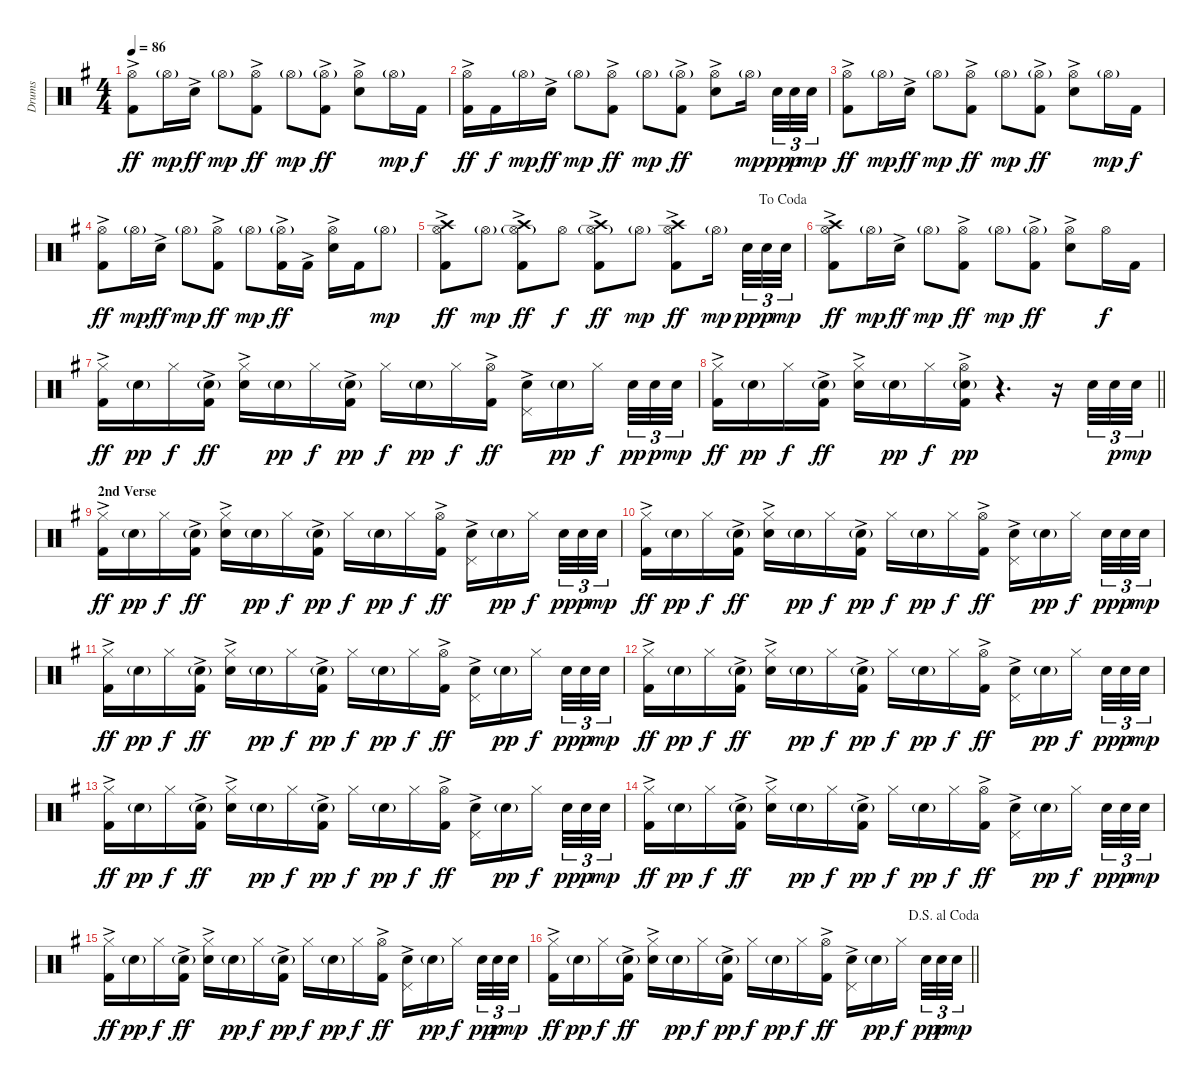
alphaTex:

\track ("Drums" "Drums") {instrument percussion}
\staff {score}
\articulation defaults
\ts (4 4)
\tempo 86
\clef neutral
\ks g
("Hi-Hat (open)" "Kick (hit) 2"{ac}).8{dy ff} "Hi-Hat (open)"{g}.16{dy mp} "Snare (hit) 2"{ac}.16{dy ff} "Hi-Hat (open)"{g}.8{dy mp} ("Hi-Hat (open)" "Kick (hit) 2"{ac}).8{dy ff} "Hi-Hat (open)"{g}.8{dy mp} ("Hi-Hat (open)"{g} "Kick (hit) 2"{ac}).8{dy ff} ("Hi-Hat (open)" "Snare (hit) 2"{ac}).8 "Hi-Hat (open)"{g}.16{dy mp} "Kick (hit) 2".16{dy f} |
("Hi-Hat (open)" "Kick (hit) 2"{ac}).16{dy ff} "Kick (hit) 2".16{dy f} "Hi-Hat (open)"{g}.16{dy mp} "Snare (hit) 2"{ac}.16{dy ff} "Hi-Hat (open)"{g}.8{dy mp} ("Hi-Hat (open)" "Kick (hit) 2"{ac}).8{dy ff} "Hi-Hat (open)"{g}.8{dy mp} ("Hi-Hat (open)"{g} "Kick (hit) 2"{ac}).8{dy ff} ("Hi-Hat (open)" "Snare (hit) 2"{ac}).8 "Hi-Hat (open)"{g}.16{dy mp beam splitsecondary} "Snare (hit) 2".32{tu (3 2) dy pp} "Snare (hit) 2".32{tu (3 2) dy p} "Snare (hit) 2".32{tu (3 2) dy mp} |
("Hi-Hat (open)" "Kick (hit) 2"{ac}).8{dy ff} "Hi-Hat (open)"{g}.16{dy mp} "Snare (hit) 2"{ac}.16{dy ff} "Hi-Hat (open)"{g}.8{dy mp} ("Hi-Hat (open)" "Kick (hit) 2"{ac}).8{dy ff} "Hi-Hat (open)"{g}.8{dy mp} ("Hi-Hat (open)"{g} "Kick (hit) 2"{ac}).8{dy ff} ("Hi-Hat (open)" "Snare (hit) 2"{ac}).8 "Hi-Hat (open)"{g}.16{dy mp} "Kick (hit) 2".16{dy f} |
("Hi-Hat (open)" "Kick (hit) 2"{ac}).8{dy ff} "Hi-Hat (open)"{g}.16{dy mp} "Snare (hit) 2"{ac}.16{dy ff} "Hi-Hat (open)"{g}.8{dy mp} ("Hi-Hat (open)" "Kick (hit) 2"{ac}).8{dy ff} "Hi-Hat (open)"{g}.8{dy mp} ("Hi-Hat (open)"{g} "Kick (hit) 2"{ac}).16{dy ff} "Kick (hit) 2"{ac}.16 ("Hi-Hat (open)" "Snare (hit) 2"{ac}).16 "Kick (hit) 2".16 "Hi-Hat (open)"{g}.8{dy mp} |
\jump dacoda
("Hi-Hat (open)" "Crash high (hit)" "Kick (hit) 2"{ac}).8{dy ff} "Hi-Hat (open)"{g}.8{dy mp} ("Hi-Hat (open)"{g} "Crash high (hit)" "Kick (hit) 2"{ac}).8{dy ff} "Hi-Hat (open)".8{dy f} ("Hi-Hat (open)"{g} "Crash high (hit)" "Kick (hit) 2"{ac}).8{dy ff} "Hi-Hat (open)"{g}.8{dy mp} ("Hi-Hat (open)" "Crash high (hit)" "Kick (hit) 2"{ac}).8{dy ff} "Hi-Hat (open)"{g}.16{dy mp beam splitsecondary} "Snare (hit) 2".32{tu (3 2) dy pp} "Snare (hit) 2".32{tu (3 2) dy p} "Snare (hit) 2".32{tu (3 2) dy mp} |
("Hi-Hat (open)" "Crash high (hit)" "Kick (hit) 2"{ac}).8{dy ff} "Hi-Hat (open)"{g}.16{dy mp} "Snare (hit) 2"{ac}.16{dy ff} "Hi-Hat (open)"{g}.8{dy mp} ("Hi-Hat (open)" "Kick (hit) 2"{ac}).8{dy ff} "Hi-Hat (open)"{g}.8{dy mp} ("Hi-Hat (open)"{g} "Kick (hit) 2"{ac}).8{dy ff} ("Hi-Hat (open)" "Snare (hit) 2"{ac}).8 "Hi-Hat (open)".16{dy f} "Kick (hit) 2".16 |
("Hi-Hat (closed)" "Kick (hit) 2"{ac}).16{dy ff} "Snare (hit) 2"{g}.16{dy pp} "Hi-Hat (closed)".16{dy f} ("Snare (hit) 2"{g} "Kick (hit) 2"{ac}).16{dy ff} ("Hi-Hat (closed)" "Snare (hit) 2"{ac}).16 "Snare (hit) 2"{g}.16{dy pp} "Hi-Hat (closed)".16{dy f} ("Snare (hit) 2"{g} "Kick (hit) 2"{ac}).16{dy pp} "Hi-Hat (closed)".16{dy f} "Snare (hit) 2"{g}.16{dy pp} "Hi-Hat (closed)".16{dy f} ("Hi-Hat (open)" "Kick (hit) 2"{ac}).16{dy ff} ("Pedal Hi-Hat (hit)" "Snare (hit) 2"{ac}).16 "Snare (hit) 2"{g}.16{dy pp} "Hi-Hat (closed)".16{dy f beam splitsecondary} "Snare (hit) 2".32{tu (3 2) dy pp} "Snare (hit) 2".32{tu (3 2) dy p} "Snare (hit) 2".32{tu (3 2) dy mp} |
\barLineRight lightlight
("Hi-Hat (closed)" "Kick (hit) 2"{ac}).16{dy ff} "Snare (hit) 2"{g}.16{dy pp} "Hi-Hat (closed)".16{dy f} ("Snare (hit) 2"{g} "Kick (hit) 2"{ac}).16{dy ff} ("Hi-Hat (closed)" "Snare (hit) 2"{ac}).16 "Snare (hit) 2"{g}.16{dy pp} "Hi-Hat (closed)".16{dy f} ("Hi-Hat (open)" "Snare (hit) 2"{g} "Kick (hit) 2"{ac}).16{dy pp} r.4{d} r.16 "Snare (hit) 2".32{tu (3 2)} "Snare (hit) 2".32{tu (3 2) dy p} "Snare (hit) 2".32{tu (3 2) dy mp} |
\section ("" "2nd Verse")
("Hi-Hat (closed)" "Kick (hit) 2"{ac}).16{dy ff} "Snare (hit) 2"{g}.16{dy pp} "Hi-Hat (closed)".16{dy f} ("Snare (hit) 2"{g} "Kick (hit) 2"{ac}).16{dy ff} ("Hi-Hat (closed)" "Snare (hit) 2"{ac}).16 "Snare (hit) 2"{g}.16{dy pp} "Hi-Hat (closed)".16{dy f} ("Snare (hit) 2"{g} "Kick (hit) 2"{ac}).16{dy pp} "Hi-Hat (closed)".16{dy f} "Snare (hit) 2"{g}.16{dy pp} "Hi-Hat (closed)".16{dy f} ("Hi-Hat (open)" "Kick (hit) 2"{ac}).16{dy ff} ("Pedal Hi-Hat (hit)" "Snare (hit) 2"{ac}).16 "Snare (hit) 2"{g}.16{dy pp} "Hi-Hat (closed)".16{dy f beam splitsecondary} "Snare (hit) 2".32{tu (3 2) dy pp} "Snare (hit) 2".32{tu (3 2) dy p} "Snare (hit) 2".32{tu (3 2) dy mp} |
("Hi-Hat (closed)" "Kick (hit) 2"{ac}).16{dy ff} "Snare (hit) 2"{g}.16{dy pp} "Hi-Hat (closed)".16{dy f} ("Snare (hit) 2"{g} "Kick (hit) 2"{ac}).16{dy ff} ("Hi-Hat (closed)" "Snare (hit) 2"{ac}).16 "Snare (hit) 2"{g}.16{dy pp} "Hi-Hat (closed)".16{dy f} ("Snare (hit) 2"{g} "Kick (hit) 2"{ac}).16{dy pp} "Hi-Hat (closed)".16{dy f} "Snare (hit) 2"{g}.16{dy pp} "Hi-Hat (closed)".16{dy f} ("Hi-Hat (open)" "Kick (hit) 2"{ac}).16{dy ff} ("Pedal Hi-Hat (hit)" "Snare (hit) 2"{ac}).16 "Snare (hit) 2"{g}.16{dy pp} "Hi-Hat (closed)".16{dy f beam splitsecondary} "Snare (hit) 2".32{tu (3 2) dy pp} "Snare (hit) 2".32{tu (3 2) dy p} "Snare (hit) 2".32{tu (3 2) dy mp} |
("Hi-Hat (closed)" "Kick (hit) 2"{ac}).16{dy ff} "Snare (hit) 2"{g}.16{dy pp} "Hi-Hat (closed)".16{dy f} ("Snare (hit) 2"{g} "Kick (hit) 2"{ac}).16{dy ff} ("Hi-Hat (closed)" "Snare (hit) 2"{ac}).16 "Snare (hit) 2"{g}.16{dy pp} "Hi-Hat (closed)".16{dy f} ("Snare (hit) 2"{g} "Kick (hit) 2"{ac}).16{dy pp} "Hi-Hat (closed)".16{dy f} "Snare (hit) 2"{g}.16{dy pp} "Hi-Hat (closed)".16{dy f} ("Hi-Hat (open)" "Kick (hit) 2"{ac}).16{dy ff} ("Pedal Hi-Hat (hit)" "Snare (hit) 2"{ac}).16 "Snare (hit) 2"{g}.16{dy pp} "Hi-Hat (closed)".16{dy f beam splitsecondary} "Snare (hit) 2".32{tu (3 2) dy pp} "Snare (hit) 2".32{tu (3 2) dy p} "Snare (hit) 2".32{tu (3 2) dy mp} |
("Hi-Hat (closed)" "Kick (hit) 2"{ac}).16{dy ff} "Snare (hit) 2"{g}.16{dy pp} "Hi-Hat (closed)".16{dy f} ("Snare (hit) 2"{g} "Kick (hit) 2"{ac}).16{dy ff} ("Hi-Hat (closed)" "Snare (hit) 2"{ac}).16 "Snare (hit) 2"{g}.16{dy pp} "Hi-Hat (closed)".16{dy f} ("Snare (hit) 2"{g} "Kick (hit) 2"{ac}).16{dy pp} "Hi-Hat (closed)".16{dy f} "Snare (hit) 2"{g}.16{dy pp} "Hi-Hat (closed)".16{dy f} ("Hi-Hat (open)" "Kick (hit) 2"{ac}).16{dy ff} ("Pedal Hi-Hat (hit)" "Snare (hit) 2"{ac}).16 "Snare (hit) 2"{g}.16{dy pp} "Hi-Hat (closed)".16{dy f beam splitsecondary} "Snare (hit) 2".32{tu (3 2) dy pp} "Snare (hit) 2".32{tu (3 2) dy p} "Snare (hit) 2".32{tu (3 2) dy mp} |
("Hi-Hat (closed)" "Kick (hit) 2"{ac}).16{dy ff} "Snare (hit) 2"{g}.16{dy pp} "Hi-Hat (closed)".16{dy f} ("Snare (hit) 2"{g} "Kick (hit) 2"{ac}).16{dy ff} ("Hi-Hat (closed)" "Snare (hit) 2"{ac}).16 "Snare (hit) 2"{g}.16{dy pp} "Hi-Hat (closed)".16{dy f} ("Snare (hit) 2"{g} "Kick (hit) 2"{ac}).16{dy pp} "Hi-Hat (closed)".16{dy f} "Snare (hit) 2"{g}.16{dy pp} "Hi-Hat (closed)".16{dy f} ("Hi-Hat (open)" "Kick (hit) 2"{ac}).16{dy ff} ("Pedal Hi-Hat (hit)" "Snare (hit) 2"{ac}).16 "Snare (hit) 2"{g}.16{dy pp} "Hi-Hat (closed)".16{dy f beam splitsecondary} "Snare (hit) 2".32{tu (3 2) dy pp} "Snare (hit) 2".32{tu (3 2) dy p} "Snare (hit) 2".32{tu (3 2) dy mp} |
("Hi-Hat (closed)" "Kick (hit) 2"{ac}).16{dy ff} "Snare (hit) 2"{g}.16{dy pp} "Hi-Hat (closed)".16{dy f} ("Snare (hit) 2"{g} "Kick (hit) 2"{ac}).16{dy ff} ("Hi-Hat (closed)" "Snare (hit) 2"{ac}).16 "Snare (hit) 2"{g}.16{dy pp} "Hi-Hat (closed)".16{dy f} ("Snare (hit) 2"{g} "Kick (hit) 2"{ac}).16{dy pp} "Hi-Hat (closed)".16{dy f} "Snare (hit) 2"{g}.16{dy pp} "Hi-Hat (closed)".16{dy f} ("Hi-Hat (open)" "Kick (hit) 2"{ac}).16{dy ff} ("Pedal Hi-Hat (hit)" "Snare (hit) 2"{ac}).16 "Snare (hit) 2"{g}.16{dy pp} "Hi-Hat (closed)".16{dy f beam splitsecondary} "Snare (hit) 2".32{tu (3 2) dy pp} "Snare (hit) 2".32{tu (3 2) dy p} "Snare (hit) 2".32{tu (3 2) dy mp} |
("Hi-Hat (closed)" "Kick (hit) 2"{ac}).16{dy ff} "Snare (hit) 2"{g}.16{dy pp} "Hi-Hat (closed)".16{dy f} ("Snare (hit) 2"{g} "Kick (hit) 2"{ac}).16{dy ff} ("Hi-Hat (closed)" "Snare (hit) 2"{ac}).16 "Snare (hit) 2"{g}.16{dy pp} "Hi-Hat (closed)".16{dy f} ("Snare (hit) 2"{g} "Kick (hit) 2"{ac}).16{dy pp} "Hi-Hat (closed)".16{dy f} "Snare (hit) 2"{g}.16{dy pp} "Hi-Hat (closed)".16{dy f} ("Hi-Hat (open)" "Kick (hit) 2"{ac}).16{dy ff} ("Pedal Hi-Hat (hit)" "Snare (hit) 2"{ac}).16 "Snare (hit) 2"{g}.16{dy pp} "Hi-Hat (closed)".16{dy f beam splitsecondary} "Snare (hit) 2".32{tu (3 2) dy pp} "Snare (hit) 2".32{tu (3 2) dy p} "Snare (hit) 2".32{tu (3 2) dy mp} |
\jump dalsegnoalcoda
\barLineRight lightlight
("Hi-Hat (closed)" "Kick (hit) 2"{ac}).16{dy ff} "Snare (hit) 2"{g}.16{dy pp} "Hi-Hat (closed)".16{dy f} ("Snare (hit) 2"{g} "Kick (hit) 2"{ac}).16{dy ff} ("Hi-Hat (closed)" "Snare (hit) 2"{ac}).16 "Snare (hit) 2"{g}.16{dy pp} "Hi-Hat (closed)".16{dy f} ("Snare (hit) 2"{g} "Kick (hit) 2"{ac}).16{dy pp} "Hi-Hat (closed)".16{dy f} "Snare (hit) 2"{g}.16{dy pp} "Hi-Hat (closed)".16{dy f} ("Hi-Hat (open)" "Kick (hit) 2"{ac}).16{dy ff} ("Pedal Hi-Hat (hit)" "Snare (hit) 2"{ac}).16 "Snare (hit) 2"{g}.16{dy pp} "Hi-Hat (closed)".16{dy f beam splitsecondary} "Snare (hit) 2".32{tu (3 2) dy pp} "Snare (hit) 2".32{tu (3 2) dy p} "Snare (hit) 2".32{tu (3 2) dy mp}
